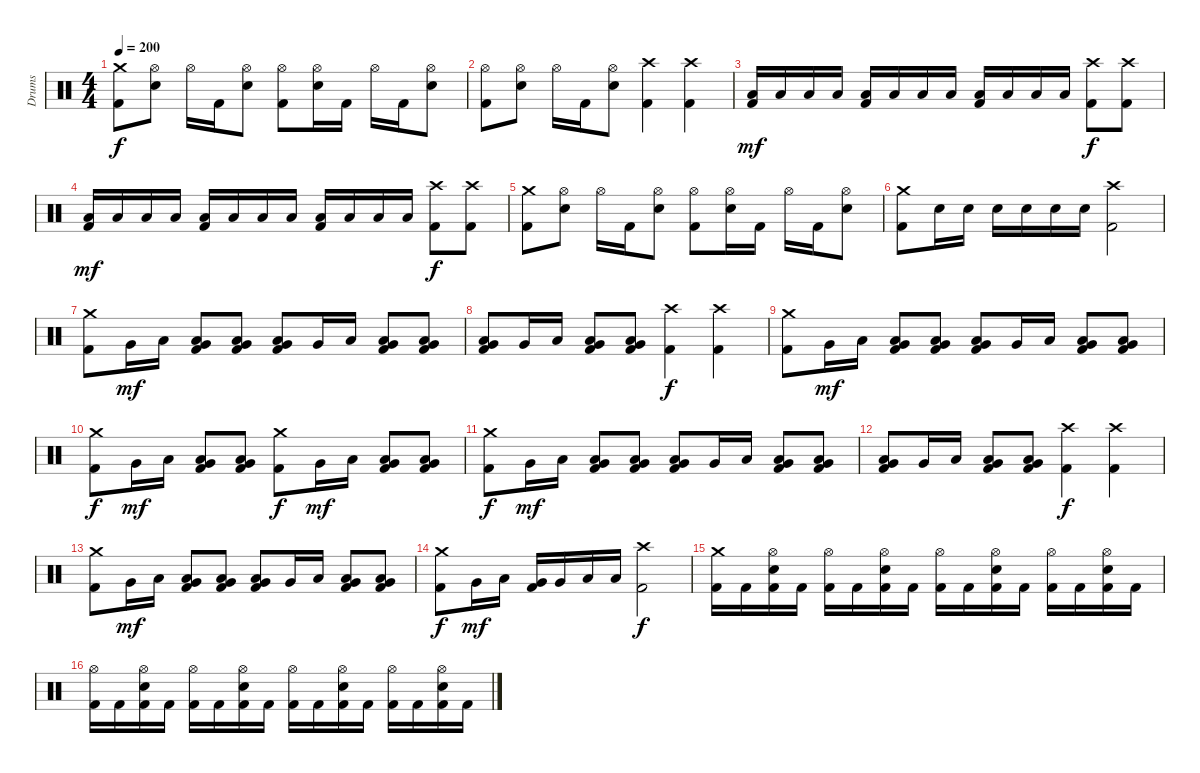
\track ("Drums" "Drums") {instrument percussion}
\staff {score}
\articulation defaults
\ts (4 4)
\tempo 200
\clef neutral
\ks c
("Crash medium (hit)" "Kick (hit) 2").8{dy f} ("Hi-Hat (open)" "Snare (hit) 2").8 "Hi-Hat (open)".16 "Kick (hit) 2".16 ("Hi-Hat (open)" "Snare (hit) 2").8 ("Hi-Hat (open)" "Kick (hit) 2").8 ("Hi-Hat (open)" "Snare (hit) 2").16 "Kick (hit) 2".16 "Hi-Hat (open)".16 "Kick (hit) 2".16 ("Hi-Hat (open)" "Snare (hit) 2").8 |
("Hi-Hat (open)" "Kick (hit) 2").8 ("Hi-Hat (open)" "Snare (hit) 2").8 "Hi-Hat (open)".16 "Kick (hit) 2".16 ("Hi-Hat (open)" "Snare (hit) 2").8 ("Crash high (hit)" "Kick (hit) 2").4 ("Crash high (hit)" "Kick (hit) 2").4 |
("Low Floor Tom (hit)" "Kick (hit) 2").16{dy mf} "Low Floor Tom (hit)".16 "Low Floor Tom (hit)".16 "Low Floor Tom (hit)".16 ("Low Floor Tom (hit)" "Kick (hit) 2").16 "Low Floor Tom (hit)".16 "Low Floor Tom (hit)".16 "Low Floor Tom (hit)".16 ("Low Floor Tom (hit)" "Kick (hit) 2").16 "Low Floor Tom (hit)".16 "Low Floor Tom (hit)".16 "Low Floor Tom (hit)".16 ("Crash high (hit)" "Kick (hit) 2").8{dy f} ("Crash high (hit)" "Kick (hit) 2").8 |
("Low Floor Tom (hit)" "Kick (hit) 2").16{dy mf} "Low Floor Tom (hit)".16 "Low Floor Tom (hit)".16 "Low Floor Tom (hit)".16 ("Low Floor Tom (hit)" "Kick (hit) 2").16 "Low Floor Tom (hit)".16 "Low Floor Tom (hit)".16 "Low Floor Tom (hit)".16 ("Low Floor Tom (hit)" "Kick (hit) 2").16 "Low Floor Tom (hit)".16 "Low Floor Tom (hit)".16 "Low Floor Tom (hit)".16 ("Crash high (hit)" "Kick (hit) 2").8{dy f} ("Crash high (hit)" "Kick (hit) 2").8 |
("Crash medium (hit)" "Kick (hit) 2").8 ("Hi-Hat (open)" "Snare (hit) 2").8 "Hi-Hat (open)".16 "Kick (hit) 2".16 ("Hi-Hat (open)" "Snare (hit) 2").8 ("Hi-Hat (open)" "Kick (hit) 2").8 ("Hi-Hat (open)" "Snare (hit) 2").16 "Kick (hit) 2".16 "Hi-Hat (open)".16 "Kick (hit) 2".16 ("Hi-Hat (open)" "Snare (hit) 2").8 |
("Crash medium (hit)" "Kick (hit) 2").8 "Snare (hit) 2".16 "Snare (hit) 2".16 "Snare (hit) 2".16 "Snare (hit) 2".16 "Snare (hit) 2".16 "Snare (hit) 2".16 ("Crash high (hit)" "Kick (hit) 2").2 |
("Crash medium (hit)" "Kick (hit) 2").8 "Very Low Tom (hit)".16{dy mf} "Low Floor Tom (hit)".16 ("Very Low Tom (hit)" "Low Floor Tom (hit)" "Kick (hit) 2").8 ("Very Low Tom (hit)" "Low Floor Tom (hit)" "Kick (hit) 2").8 ("Very Low Tom (hit)" "Low Floor Tom (hit)" "Kick (hit) 2").8 "Very Low Tom (hit)".16 "Low Floor Tom (hit)".16 ("Very Low Tom (hit)" "Low Floor Tom (hit)" "Kick (hit) 2").8 ("Very Low Tom (hit)" "Low Floor Tom (hit)" "Kick (hit) 2").8 |
("Very Low Tom (hit)" "Low Floor Tom (hit)" "Kick (hit) 2").8 "Very Low Tom (hit)".16 "Low Floor Tom (hit)".16 ("Very Low Tom (hit)" "Low Floor Tom (hit)" "Kick (hit) 2").8 ("Very Low Tom (hit)" "Low Floor Tom (hit)" "Kick (hit) 2").8 ("Crash high (hit)" "Kick (hit) 2").4{dy f} ("Crash high (hit)" "Kick (hit) 2").4 |
("Crash medium (hit)" "Kick (hit) 2").8 "Very Low Tom (hit)".16{dy mf} "Low Floor Tom (hit)".16 ("Very Low Tom (hit)" "Low Floor Tom (hit)" "Kick (hit) 2").8 ("Very Low Tom (hit)" "Low Floor Tom (hit)" "Kick (hit) 2").8 ("Very Low Tom (hit)" "Low Floor Tom (hit)" "Kick (hit) 2").8 "Very Low Tom (hit)".16 "Low Floor Tom (hit)".16 ("Very Low Tom (hit)" "Low Floor Tom (hit)" "Kick (hit) 2").8 ("Very Low Tom (hit)" "Low Floor Tom (hit)" "Kick (hit) 2").8 |
("Crash medium (hit)" "Kick (hit) 2").8{dy f} "Very Low Tom (hit)".16{dy mf} "Low Floor Tom (hit)".16 ("Very Low Tom (hit)" "Low Floor Tom (hit)" "Kick (hit) 2").8 ("Very Low Tom (hit)" "Low Floor Tom (hit)" "Kick (hit) 2").8 ("Crash medium (hit)" "Kick (hit) 2").8{dy f} "Very Low Tom (hit)".16{dy mf} "Low Floor Tom (hit)".16 ("Very Low Tom (hit)" "Low Floor Tom (hit)" "Kick (hit) 2").8 ("Very Low Tom (hit)" "Low Floor Tom (hit)" "Kick (hit) 2").8 |
("Crash medium (hit)" "Kick (hit) 2").8{dy f} "Very Low Tom (hit)".16{dy mf} "Low Floor Tom (hit)".16 ("Very Low Tom (hit)" "Low Floor Tom (hit)" "Kick (hit) 2").8 ("Very Low Tom (hit)" "Low Floor Tom (hit)" "Kick (hit) 2").8 ("Very Low Tom (hit)" "Low Floor Tom (hit)" "Kick (hit) 2").8 "Very Low Tom (hit)".16 "Low Floor Tom (hit)".16 ("Very Low Tom (hit)" "Low Floor Tom (hit)" "Kick (hit) 2").8 ("Very Low Tom (hit)" "Low Floor Tom (hit)" "Kick (hit) 2").8 |
("Very Low Tom (hit)" "Low Floor Tom (hit)" "Kick (hit) 2").8 "Very Low Tom (hit)".16 "Low Floor Tom (hit)".16 ("Very Low Tom (hit)" "Low Floor Tom (hit)" "Kick (hit) 2").8 ("Very Low Tom (hit)" "Low Floor Tom (hit)" "Kick (hit) 2").8 ("Crash high (hit)" "Kick (hit) 2").4{dy f} ("Crash high (hit)" "Kick (hit) 2").4 |
("Crash medium (hit)" "Kick (hit) 2").8 "Very Low Tom (hit)".16{dy mf} "Low Floor Tom (hit)".16 ("Very Low Tom (hit)" "Low Floor Tom (hit)" "Kick (hit) 2").8 ("Very Low Tom (hit)" "Low Floor Tom (hit)" "Kick (hit) 2").8 ("Very Low Tom (hit)" "Low Floor Tom (hit)" "Kick (hit) 2").8 "Very Low Tom (hit)".16 "Low Floor Tom (hit)".16 ("Very Low Tom (hit)" "Low Floor Tom (hit)" "Kick (hit) 2").8 ("Very Low Tom (hit)" "Low Floor Tom (hit)" "Kick (hit) 2").8 |
("Crash medium (hit)" "Kick (hit) 2").8{dy f} "Very Low Tom (hit)".16{dy mf} "Low Floor Tom (hit)".16 ("Very Low Tom (hit)" "Kick (hit) 2").16 "Very Low Tom (hit)".16 "Low Floor Tom (hit)".16 "Low Floor Tom (hit)".16 ("Crash high (hit)" "Kick (hit) 2").2{dy f} |
("Crash medium (hit)" "Kick (hit) 2").16 "Kick (hit) 2".16 ("Hi-Hat (open)" "Snare (hit) 2" "Kick (hit) 2").16 "Kick (hit) 2".16 ("Hi-Hat (open)" "Kick (hit) 2").16 "Kick (hit) 2".16 ("Hi-Hat (open)" "Snare (hit) 2" "Kick (hit) 2").16 "Kick (hit) 2".16 ("Hi-Hat (open)" "Kick (hit) 2").16 "Kick (hit) 2".16 ("Hi-Hat (open)" "Snare (hit) 2" "Kick (hit) 2").16 "Kick (hit) 2".16 ("Hi-Hat (open)" "Kick (hit) 2").16 "Kick (hit) 2".16 ("Hi-Hat (open)" "Snare (hit) 2" "Kick (hit) 2").16 "Kick (hit) 2".16 |
("Hi-Hat (open)" "Kick (hit) 2").16 "Kick (hit) 2".16 ("Hi-Hat (open)" "Snare (hit) 2" "Kick (hit) 2").16 "Kick (hit) 2".16 ("Hi-Hat (open)" "Kick (hit) 2").16 "Kick (hit) 2".16 ("Hi-Hat (open)" "Snare (hit) 2" "Kick (hit) 2").16 "Kick (hit) 2".16 ("Hi-Hat (open)" "Kick (hit) 2").16 "Kick (hit) 2".16 ("Hi-Hat (open)" "Snare (hit) 2" "Kick (hit) 2").16 "Kick (hit) 2".16 ("Hi-Hat (open)" "Kick (hit) 2").16 "Kick (hit) 2".16 ("Hi-Hat (open)" "Snare (hit) 2" "Kick (hit) 2").16 "Kick (hit) 2".16
